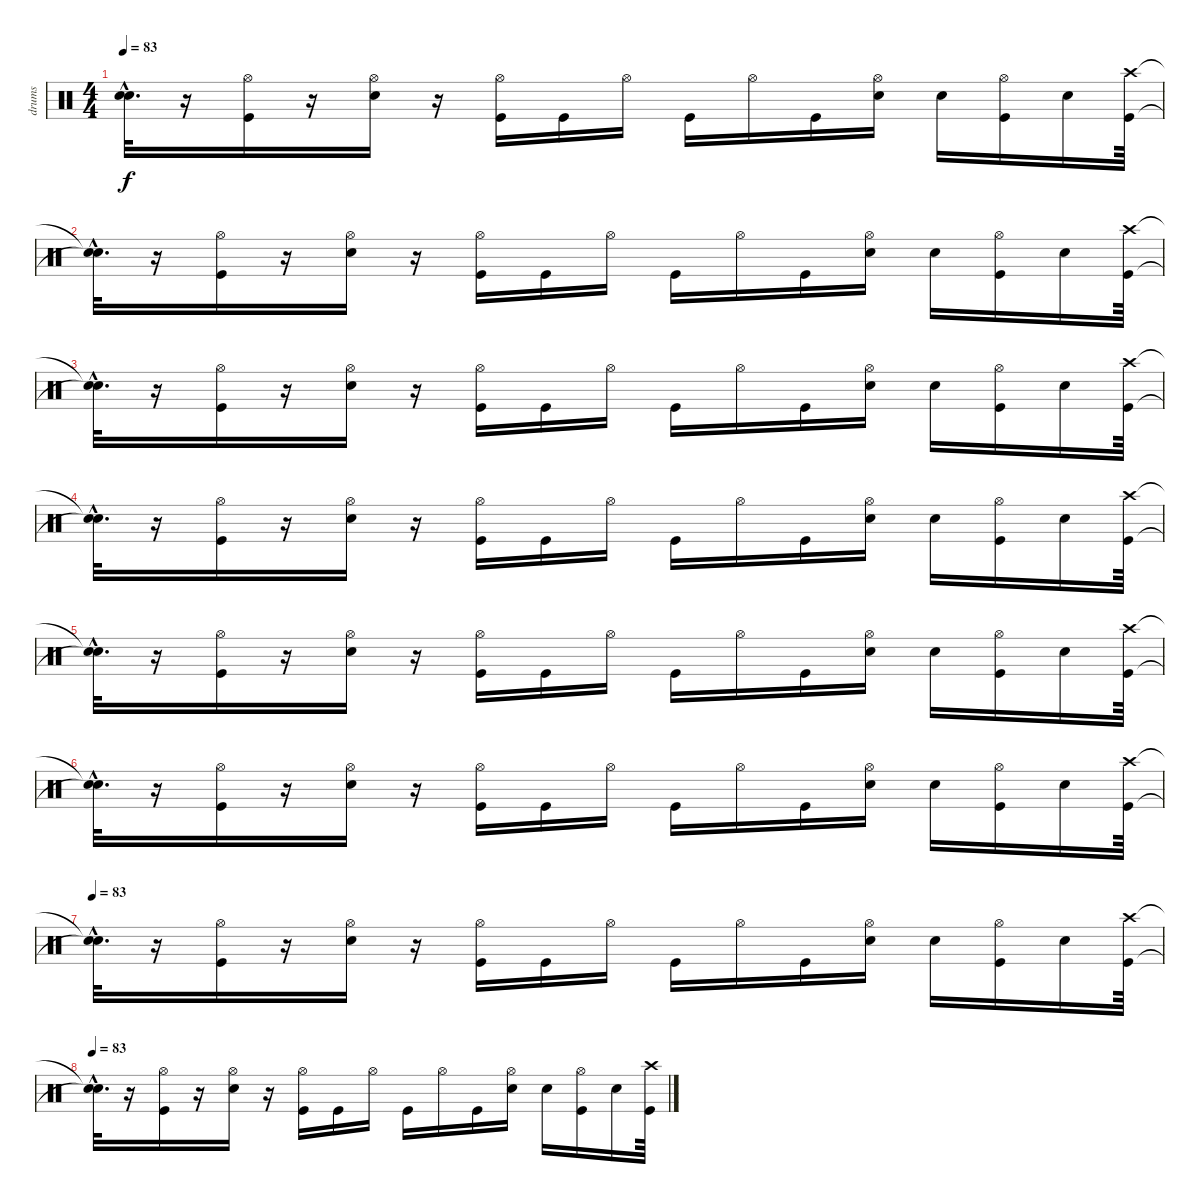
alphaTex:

\track ("drums" "drums") {instrument percussion}
\staff {score}
\articulation defaults
\ts (4 4)
\tempo 83
\clef neutral
\ks c
("Snare (hit)"{hac t} "Snare (hit)"{hac t}).32{d dy f} r.16 ("Hi-Hat (open)" "Kick (hit)").16 r.16 ("Hi-Hat (open)" "Electric Snare (hit)").16 r.16 ("Hi-Hat (open)" "Kick (hit)").16 "Kick (hit)".16 "Hi-Hat (open)".16 "Kick (hit)".16 "Hi-Hat (open)".16 "Kick (hit)".16 ("Hi-Hat (open)" "Electric Snare (hit)").16 "Electric Snare (hit)".16 ("Hi-Hat (open)" "Kick (hit)").16 "Electric Snare (hit)".16 ("Crash high (hit)" "Kick (hit)").64 |
("Snare (hit)"{hac t} "Snare (hit)"{hac t}).32{d} r.16 ("Hi-Hat (open)" "Kick (hit)").16 r.16 ("Hi-Hat (open)" "Electric Snare (hit)").16 r.16 ("Hi-Hat (open)" "Kick (hit)").16 "Kick (hit)".16 "Hi-Hat (open)".16 "Kick (hit)".16 "Hi-Hat (open)".16 "Kick (hit)".16 ("Hi-Hat (open)" "Electric Snare (hit)").16 "Electric Snare (hit)".16 ("Hi-Hat (open)" "Kick (hit)").16 "Electric Snare (hit)".16 ("Crash high (hit)" "Kick (hit)").64 |
("Snare (hit)"{hac t} "Snare (hit)"{hac t}).32{d} r.16 ("Hi-Hat (open)" "Kick (hit)").16 r.16 ("Hi-Hat (open)" "Electric Snare (hit)").16 r.16 ("Hi-Hat (open)" "Kick (hit)").16 "Kick (hit)".16 "Hi-Hat (open)".16 "Kick (hit)".16 "Hi-Hat (open)".16 "Kick (hit)".16 ("Hi-Hat (open)" "Electric Snare (hit)").16 "Electric Snare (hit)".16 ("Hi-Hat (open)" "Kick (hit)").16 "Electric Snare (hit)".16 ("Crash high (hit)" "Kick (hit)").64 |
("Snare (hit)"{hac t} "Snare (hit)"{hac t}).32{d} r.16 ("Hi-Hat (open)" "Kick (hit)").16 r.16 ("Hi-Hat (open)" "Electric Snare (hit)").16 r.16 ("Hi-Hat (open)" "Kick (hit)").16 "Kick (hit)".16 "Hi-Hat (open)".16 "Kick (hit)".16 "Hi-Hat (open)".16 "Kick (hit)".16 ("Hi-Hat (open)" "Electric Snare (hit)").16 "Electric Snare (hit)".16 ("Hi-Hat (open)" "Kick (hit)").16 "Electric Snare (hit)".16 ("Crash high (hit)" "Kick (hit)").64 |
("Snare (hit)"{hac t} "Snare (hit)"{hac t}).32{d} r.16 ("Hi-Hat (open)" "Kick (hit)").16 r.16 ("Hi-Hat (open)" "Electric Snare (hit)").16 r.16 ("Hi-Hat (open)" "Kick (hit)").16 "Kick (hit)".16 "Hi-Hat (open)".16 "Kick (hit)".16 "Hi-Hat (open)".16 "Kick (hit)".16 ("Hi-Hat (open)" "Electric Snare (hit)").16 "Electric Snare (hit)".16 ("Hi-Hat (open)" "Kick (hit)").16 "Electric Snare (hit)".16 ("Crash high (hit)" "Kick (hit)").64 |
("Snare (hit)"{hac t} "Snare (hit)"{hac t}).32{d} r.16 ("Hi-Hat (open)" "Kick (hit)").16 r.16 ("Hi-Hat (open)" "Electric Snare (hit)").16 r.16 ("Hi-Hat (open)" "Kick (hit)").16 "Kick (hit)".16 "Hi-Hat (open)".16 "Kick (hit)".16 "Hi-Hat (open)".16 "Kick (hit)".16 ("Hi-Hat (open)" "Electric Snare (hit)").16 "Electric Snare (hit)".16 ("Hi-Hat (open)" "Kick (hit)").16 "Electric Snare (hit)".16 ("Crash high (hit)" "Kick (hit)").64 |
\tempo 83
("Snare (hit)"{hac t} "Snare (hit)"{hac t}).32{d} r.16 ("Hi-Hat (open)" "Kick (hit)").16 r.16 ("Hi-Hat (open)" "Electric Snare (hit)").16 r.16 ("Hi-Hat (open)" "Kick (hit)").16 "Kick (hit)".16 "Hi-Hat (open)".16 "Kick (hit)".16 "Hi-Hat (open)".16 "Kick (hit)".16 ("Hi-Hat (open)" "Electric Snare (hit)").16 "Electric Snare (hit)".16 ("Hi-Hat (open)" "Kick (hit)").16 "Electric Snare (hit)".16 ("Crash high (hit)" "Kick (hit)").64 |
\tempo 83
("Snare (hit)"{hac t} "Snare (hit)"{hac t}).32{d} r.16 ("Hi-Hat (open)" "Kick (hit)").16 r.16 ("Hi-Hat (open)" "Electric Snare (hit)").16 r.16 ("Hi-Hat (open)" "Kick (hit)").16 "Kick (hit)".16 "Hi-Hat (open)".16 "Kick (hit)".16 "Hi-Hat (open)".16 "Kick (hit)".16 ("Hi-Hat (open)" "Electric Snare (hit)").16 "Electric Snare (hit)".16 ("Hi-Hat (open)" "Kick (hit)").16 "Electric Snare (hit)".16 ("Crash high (hit)" "Kick (hit)").64
